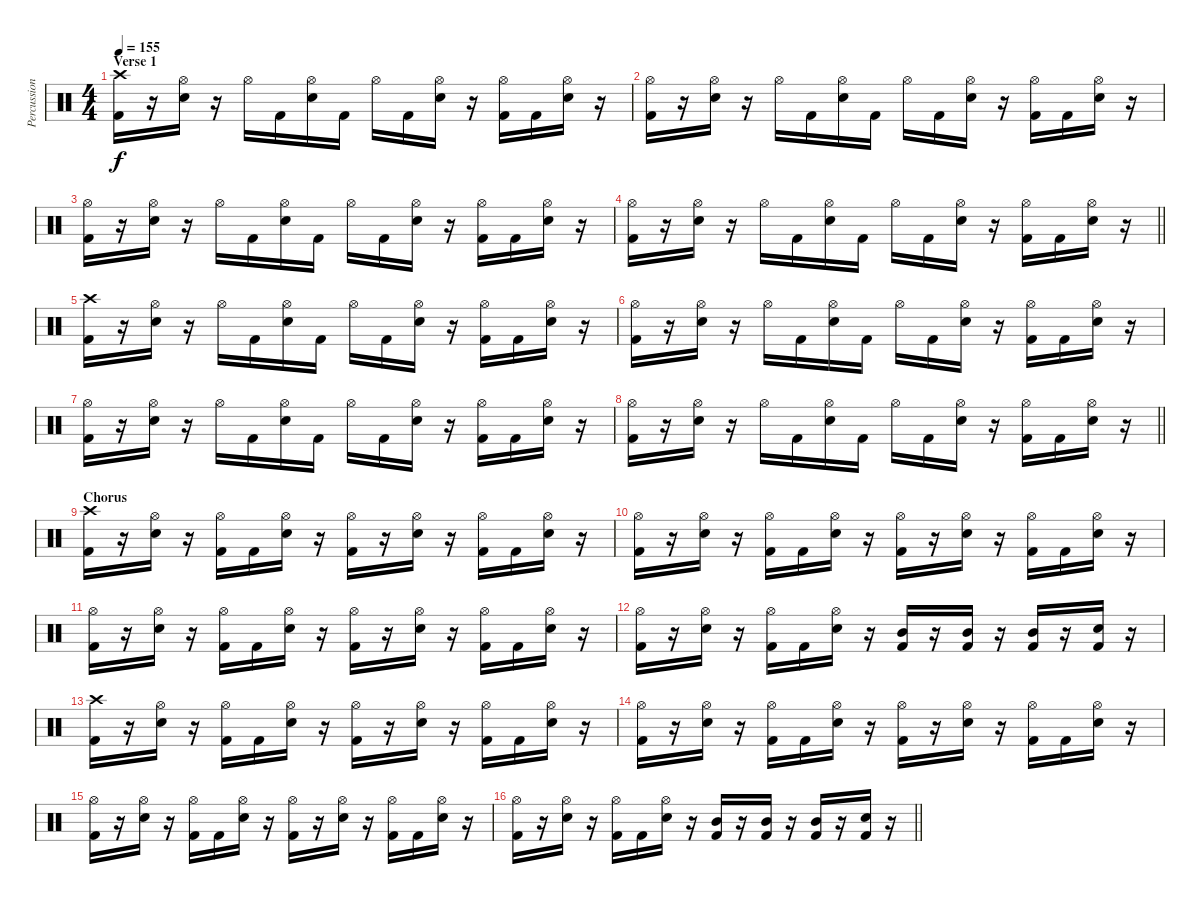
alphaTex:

\track ("Percussion" "Percussion") {instrument percussion}
\staff {score}
\articulation defaults
\ts (4 4)
\section ("" "Verse 1")
\tempo 155
\clef neutral
\ks c
("Crash high (hit)" "Kick (hit) 2").16{dy f} r.16 ("Hi-Hat (open)" "Electric Snare (hit)").16 r.16 "Hi-Hat (open)".16 "Kick (hit) 2".16 ("Hi-Hat (open)" "Electric Snare (hit)").16 "Kick (hit) 2".16 "Hi-Hat (open)".16 "Kick (hit) 2".16 ("Hi-Hat (open)" "Electric Snare (hit)").16 r.16 ("Hi-Hat (open)" "Kick (hit) 2").16 "Kick (hit) 2".16 ("Hi-Hat (open)" "Electric Snare (hit)").16 r.16 |
("Hi-Hat (open)" "Kick (hit) 2").16 r.16 ("Hi-Hat (open)" "Electric Snare (hit)").16 r.16 "Hi-Hat (open)".16 "Kick (hit) 2".16 ("Hi-Hat (open)" "Electric Snare (hit)").16 "Kick (hit) 2".16 "Hi-Hat (open)".16 "Kick (hit) 2".16 ("Hi-Hat (open)" "Electric Snare (hit)").16 r.16 ("Hi-Hat (open)" "Kick (hit) 2").16 "Kick (hit) 2".16 ("Hi-Hat (open)" "Electric Snare (hit)").16 r.16 |
("Hi-Hat (open)" "Kick (hit) 2").16 r.16 ("Hi-Hat (open)" "Electric Snare (hit)").16 r.16 "Hi-Hat (open)".16 "Kick (hit) 2".16 ("Hi-Hat (open)" "Electric Snare (hit)").16 "Kick (hit) 2".16 "Hi-Hat (open)".16 "Kick (hit) 2".16 ("Hi-Hat (open)" "Electric Snare (hit)").16 r.16 ("Hi-Hat (open)" "Kick (hit) 2").16 "Kick (hit) 2".16 ("Hi-Hat (open)" "Electric Snare (hit)").16 r.16 |
\barLineRight lightlight
("Hi-Hat (open)" "Kick (hit) 2").16 r.16 ("Hi-Hat (open)" "Electric Snare (hit)").16 r.16 "Hi-Hat (open)".16 "Kick (hit) 2".16 ("Hi-Hat (open)" "Electric Snare (hit)").16 "Kick (hit) 2".16 "Hi-Hat (open)".16 "Kick (hit) 2".16 ("Hi-Hat (open)" "Electric Snare (hit)").16 r.16 ("Hi-Hat (open)" "Kick (hit) 2").16 "Kick (hit) 2".16 ("Hi-Hat (open)" "Electric Snare (hit)").16 r.16 |
("Crash high (hit)" "Kick (hit) 2").16 r.16 ("Hi-Hat (open)" "Electric Snare (hit)").16 r.16 "Hi-Hat (open)".16 "Kick (hit) 2".16 ("Hi-Hat (open)" "Electric Snare (hit)").16 "Kick (hit) 2".16 "Hi-Hat (open)".16 "Kick (hit) 2".16 ("Hi-Hat (open)" "Electric Snare (hit)").16 r.16 ("Hi-Hat (open)" "Kick (hit) 2").16 "Kick (hit) 2".16 ("Hi-Hat (open)" "Electric Snare (hit)").16 r.16 |
("Hi-Hat (open)" "Kick (hit) 2").16 r.16 ("Hi-Hat (open)" "Electric Snare (hit)").16 r.16 "Hi-Hat (open)".16 "Kick (hit) 2".16 ("Hi-Hat (open)" "Electric Snare (hit)").16 "Kick (hit) 2".16 "Hi-Hat (open)".16 "Kick (hit) 2".16 ("Hi-Hat (open)" "Electric Snare (hit)").16 r.16 ("Hi-Hat (open)" "Kick (hit) 2").16 "Kick (hit) 2".16 ("Hi-Hat (open)" "Electric Snare (hit)").16 r.16 |
("Hi-Hat (open)" "Kick (hit) 2").16 r.16 ("Hi-Hat (open)" "Electric Snare (hit)").16 r.16 "Hi-Hat (open)".16 "Kick (hit) 2".16 ("Hi-Hat (open)" "Electric Snare (hit)").16 "Kick (hit) 2".16 "Hi-Hat (open)".16 "Kick (hit) 2".16 ("Hi-Hat (open)" "Electric Snare (hit)").16 r.16 ("Hi-Hat (open)" "Kick (hit) 2").16 "Kick (hit) 2".16 ("Hi-Hat (open)" "Electric Snare (hit)").16 r.16 |
\barLineRight lightlight
("Hi-Hat (open)" "Kick (hit) 2").16 r.16 ("Hi-Hat (open)" "Electric Snare (hit)").16 r.16 "Hi-Hat (open)".16 "Kick (hit) 2".16 ("Hi-Hat (open)" "Electric Snare (hit)").16 "Kick (hit) 2".16 "Hi-Hat (open)".16 "Kick (hit) 2".16 ("Hi-Hat (open)" "Electric Snare (hit)").16 r.16 ("Hi-Hat (open)" "Kick (hit) 2").16 "Kick (hit) 2".16 ("Hi-Hat (open)" "Electric Snare (hit)").16 r.16 |
\section ("" "Chorus")
("Crash high (hit)" "Kick (hit) 2").16 r.16 ("Hi-Hat (open)" "Electric Snare (hit)").16 r.16 ("Hi-Hat (open)" "Kick (hit) 2").16 "Kick (hit) 2".16 ("Hi-Hat (open)" "Electric Snare (hit)").16 r.16 ("Hi-Hat (open)" "Kick (hit) 2").16 r.16 ("Hi-Hat (open)" "Electric Snare (hit)").16 r.16 ("Hi-Hat (open)" "Kick (hit) 2").16 "Kick (hit) 2".16 ("Hi-Hat (open)" "Electric Snare (hit)").16 r.16 |
("Hi-Hat (open)" "Kick (hit) 2").16 r.16 ("Hi-Hat (open)" "Electric Snare (hit)").16 r.16 ("Hi-Hat (open)" "Kick (hit) 2").16 "Kick (hit) 2".16 ("Hi-Hat (open)" "Electric Snare (hit)").16 r.16 ("Hi-Hat (open)" "Kick (hit) 2").16 r.16 ("Hi-Hat (open)" "Electric Snare (hit)").16 r.16 ("Hi-Hat (open)" "Kick (hit) 2").16 "Kick (hit) 2".16 ("Hi-Hat (open)" "Electric Snare (hit)").16 r.16 |
("Hi-Hat (open)" "Kick (hit) 2").16 r.16 ("Hi-Hat (open)" "Electric Snare (hit)").16 r.16 ("Hi-Hat (open)" "Kick (hit) 2").16 "Kick (hit) 2".16 ("Hi-Hat (open)" "Electric Snare (hit)").16 r.16 ("Hi-Hat (open)" "Kick (hit) 2").16 r.16 ("Hi-Hat (open)" "Electric Snare (hit)").16 r.16 ("Hi-Hat (open)" "Kick (hit) 2").16 "Kick (hit) 2".16 ("Hi-Hat (open)" "Electric Snare (hit)").16 r.16 |
("Hi-Hat (open)" "Kick (hit) 2").16 r.16 ("Hi-Hat (open)" "Electric Snare (hit)").16 r.16 ("Hi-Hat (open)" "Kick (hit) 2").16 "Kick (hit) 2".16 ("Hi-Hat (open)" "Electric Snare (hit)").16 r.16 ("Mid Tom (hit)" "Kick (hit) 2").16 r.16 ("Mid Tom (hit)" "Kick (hit) 2").16 r.16 ("Mid Tom (hit)" "Kick (hit) 2").16 r.16 ("Electric Snare (hit)" "Kick (hit) 2").16 r.16 |
("Crash high (hit)" "Kick (hit) 2").16 r.16 ("Hi-Hat (open)" "Electric Snare (hit)").16 r.16 ("Hi-Hat (open)" "Kick (hit) 2").16 "Kick (hit) 2".16 ("Hi-Hat (open)" "Electric Snare (hit)").16 r.16 ("Hi-Hat (open)" "Kick (hit) 2").16 r.16 ("Hi-Hat (open)" "Electric Snare (hit)").16 r.16 ("Hi-Hat (open)" "Kick (hit) 2").16 "Kick (hit) 2".16 ("Hi-Hat (open)" "Electric Snare (hit)").16 r.16 |
("Hi-Hat (open)" "Kick (hit) 2").16 r.16 ("Hi-Hat (open)" "Electric Snare (hit)").16 r.16 ("Hi-Hat (open)" "Kick (hit) 2").16 "Kick (hit) 2".16 ("Hi-Hat (open)" "Electric Snare (hit)").16 r.16 ("Hi-Hat (open)" "Kick (hit) 2").16 r.16 ("Hi-Hat (open)" "Electric Snare (hit)").16 r.16 ("Hi-Hat (open)" "Kick (hit) 2").16 "Kick (hit) 2".16 ("Hi-Hat (open)" "Electric Snare (hit)").16 r.16 |
("Hi-Hat (open)" "Kick (hit) 2").16 r.16 ("Hi-Hat (open)" "Electric Snare (hit)").16 r.16 ("Hi-Hat (open)" "Kick (hit) 2").16 "Kick (hit) 2".16 ("Hi-Hat (open)" "Electric Snare (hit)").16 r.16 ("Hi-Hat (open)" "Kick (hit) 2").16 r.16 ("Hi-Hat (open)" "Electric Snare (hit)").16 r.16 ("Hi-Hat (open)" "Kick (hit) 2").16 "Kick (hit) 2".16 ("Hi-Hat (open)" "Electric Snare (hit)").16 r.16 |
\barLineRight lightlight
("Hi-Hat (open)" "Kick (hit) 2").16 r.16 ("Hi-Hat (open)" "Electric Snare (hit)").16 r.16 ("Hi-Hat (open)" "Kick (hit) 2").16 "Kick (hit) 2".16 ("Hi-Hat (open)" "Electric Snare (hit)").16 r.16 ("Mid Tom (hit)" "Kick (hit) 2").16 r.16 ("Mid Tom (hit)" "Kick (hit) 2").16 r.16 ("Mid Tom (hit)" "Kick (hit) 2").16 r.16 ("Electric Snare (hit)" "Kick (hit) 2").16 r.16
